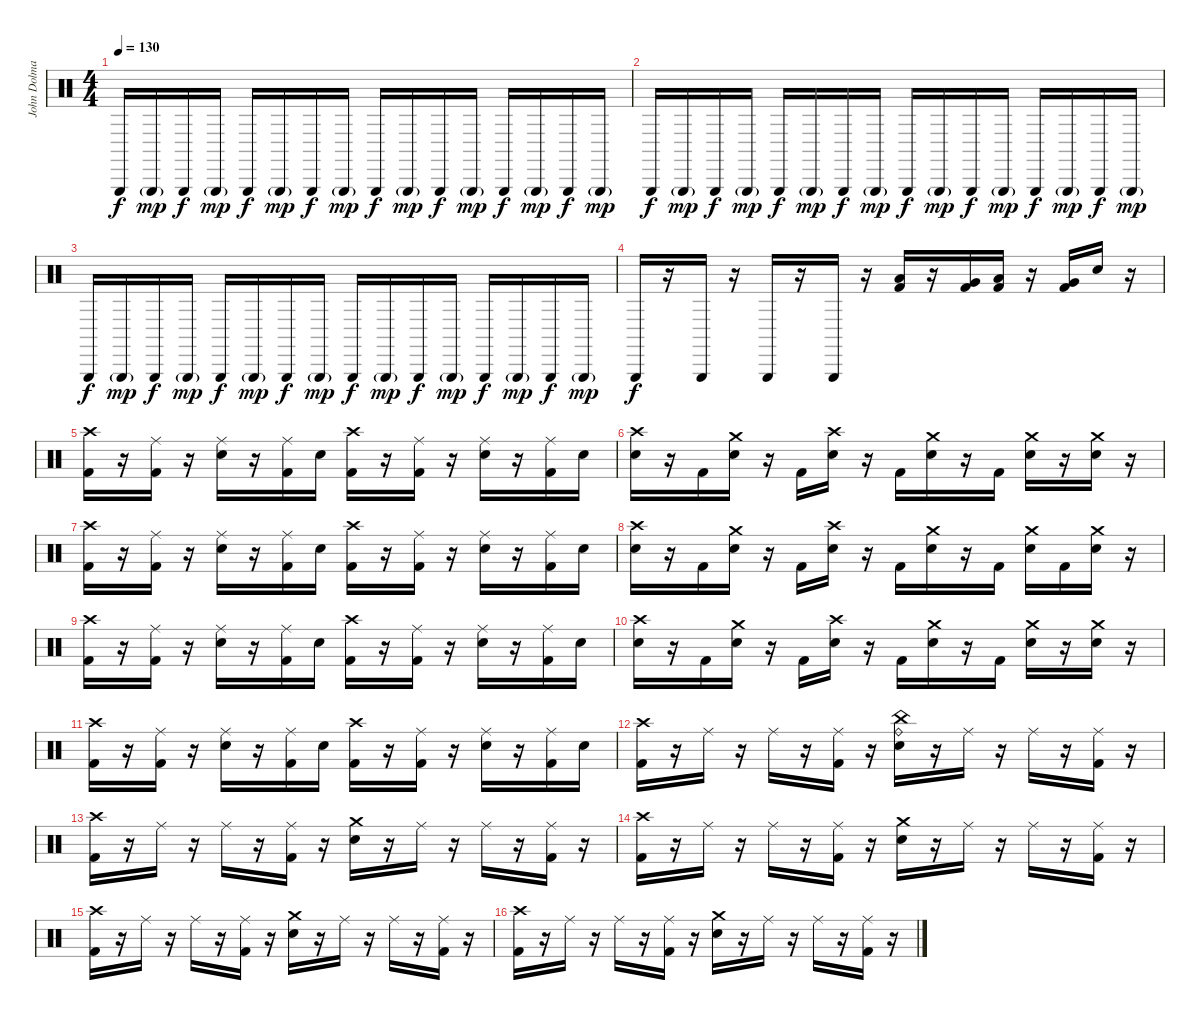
\track ("John Dolmayan" "John Dolma") {instrument percussion}
\staff {score}
\articulation defaults
\ts (4 4)
\tempo 130
\clef neutral
\ks c "Triangle (hit)".16{dy f} "Triangle (hit)"{g}.16{dy mp} "Triangle (hit)".16{dy f} "Triangle (hit)"{g}.16{dy mp} "Triangle (hit)".16{dy f} "Triangle (hit)"{g}.16{dy mp} "Triangle (hit)".16{dy f} "Triangle (hit)"{g}.16{dy mp} "Triangle (hit)".16{dy f} "Triangle (hit)"{g}.16{dy mp} "Triangle (hit)".16{dy f} "Triangle (hit)"{g}.16{dy mp} "Triangle (hit)".16{dy f} "Triangle (hit)"{g}.16{dy mp} "Triangle (hit)".16{dy f} "Triangle (hit)"{g}.16{dy mp}
|
"Triangle (hit)".16{dy f} "Triangle (hit)"{g}.16{dy mp} "Triangle (hit)".16{dy f} "Triangle (hit)"{g}.16{dy mp} "Triangle (hit)".16{dy f} "Triangle (hit)"{g}.16{dy mp} "Triangle (hit)".16{dy f} "Triangle (hit)"{g}.16{dy mp} "Triangle (hit)".16{dy f} "Triangle (hit)"{g}.16{dy mp} "Triangle (hit)".16{dy f} "Triangle (hit)"{g}.16{dy mp} "Triangle (hit)".16{dy f} "Triangle (hit)"{g}.16{dy mp} "Triangle (hit)".16{dy f} "Triangle (hit)"{g}.16{dy mp} |
"Triangle (hit)".16{dy f} "Triangle (hit)"{g}.16{dy mp} "Triangle (hit)".16{dy f} "Triangle (hit)"{g}.16{dy mp} "Triangle (hit)".16{dy f} "Triangle (hit)"{g}.16{dy mp} "Triangle (hit)".16{dy f} "Triangle (hit)"{g}.16{dy mp} "Triangle (hit)".16{dy f} "Triangle (hit)"{g}.16{dy mp} "Triangle (hit)".16{dy f} "Triangle (hit)"{g}.16{dy mp} "Triangle (hit)".16{dy f} "Triangle (hit)"{g}.16{dy mp} "Triangle (hit)".16{dy f} "Triangle (hit)"{g}.16{dy mp} |
"Triangle (hit)".16{dy f} r.16 "Triangle (hit)".16 r.16 "Triangle (hit)".16 r.16 "Triangle (hit)".16 r.16 ("Low Tom (hit)" "Kick (hit) 2").16 r.16 ("Very Low Tom (hit)" "Kick (hit) 2").16 ("Low Floor Tom (hit)" "Kick (hit) 2").16 r.16 ("Very Low Tom (hit)" "Kick (hit) 2").16 "Electric Snare (hit)".16 r.16 |
("Crash high (hit)" "Kick (hit) 2").16 r.16 ("Ride (middle)" "Kick (hit) 2").16 r.16 ("Ride (middle)" "Electric Snare (hit)").16 r.16 ("Ride (middle)" "Kick (hit) 2").16 "Electric Snare (hit)".16 ("Crash high (hit)" "Kick (hit) 2").16 r.16 ("Ride (middle)" "Kick (hit) 2").16 r.16 ("Ride (middle)" "Electric Snare (hit)").16 r.16 ("Ride (middle)" "Kick (hit) 2").16 "Electric Snare (hit)".16 |
("Crash high (hit)" "Electric Snare (hit)").16 r.16 "Kick (hit) 2".16 ("Crash medium (hit)" "Electric Snare (hit)").16 r.16 "Kick (hit) 2".16 ("Crash high (hit)" "Electric Snare (hit)").16 r.16 "Kick (hit) 2".16 ("Crash medium (hit)" "Electric Snare (hit)").16 r.16 "Kick (hit) 2".16 ("Crash medium (hit)" "Electric Snare (hit)").16 r.16 ("Crash medium (hit)" "Electric Snare (hit)").16 r.16 |
("Crash high (hit)" "Kick (hit) 2").16 r.16 ("Ride (middle)" "Kick (hit) 2").16 r.16 ("Ride (middle)" "Electric Snare (hit)").16 r.16 ("Ride (middle)" "Kick (hit) 2").16 "Electric Snare (hit)".16 ("Crash high (hit)" "Kick (hit) 2").16 r.16 ("Ride (middle)" "Kick (hit) 2").16 r.16 ("Ride (middle)" "Electric Snare (hit)").16 r.16 ("Ride (middle)" "Kick (hit) 2").16 "Electric Snare (hit)".16 |
("Crash high (hit)" "Electric Snare (hit)").16 r.16 "Kick (hit) 2".16 ("Crash medium (hit)" "Electric Snare (hit)").16 r.16 "Kick (hit) 2".16 ("Crash high (hit)" "Electric Snare (hit)").16 r.16 "Kick (hit) 2".16 ("Crash medium (hit)" "Electric Snare (hit)").16 r.16 "Kick (hit) 2".16 ("Crash medium (hit)" "Electric Snare (hit)").16 "Kick (hit) 2".16 ("Crash medium (hit)" "Electric Snare (hit)").16 r.16 |
("Crash high (hit)" "Kick (hit) 2").16 r.16 ("Ride (middle)" "Kick (hit) 2").16 r.16 ("Ride (middle)" "Electric Snare (hit)").16 r.16 ("Ride (middle)" "Kick (hit) 2").16 "Electric Snare (hit)".16 ("Crash high (hit)" "Kick (hit) 2").16 r.16 ("Ride (middle)" "Kick (hit) 2").16 r.16 ("Ride (middle)" "Electric Snare (hit)").16 r.16 ("Ride (middle)" "Kick (hit) 2").16 "Electric Snare (hit)".16 |
("Crash high (hit)" "Electric Snare (hit)").16 r.16 "Kick (hit) 2".16 ("Crash medium (hit)" "Electric Snare (hit)").16 r.16 "Kick (hit) 2".16 ("Crash high (hit)" "Electric Snare (hit)").16 r.16 "Kick (hit) 2".16 ("Crash medium (hit)" "Electric Snare (hit)").16 r.16 "Kick (hit) 2".16 ("Crash medium (hit)" "Electric Snare (hit)").16 r.16 ("Crash medium (hit)" "Electric Snare (hit)").16 r.16 |
("Crash high (hit)" "Kick (hit) 2").16 r.16 ("Ride (middle)" "Kick (hit) 2").16 r.16 ("Ride (middle)" "Electric Snare (hit)").16 r.16 ("Ride (middle)" "Kick (hit) 2").16 "Electric Snare (hit)".16 ("Crash high (hit)" "Kick (hit) 2").16 r.16 ("Ride (middle)" "Kick (hit) 2").16 r.16 ("Ride (middle)" "Electric Snare (hit)").16 r.16 ("Ride (middle)" "Kick (hit) 2").16 "Electric Snare (hit)".16 |
("Crash high (hit)" "Kick (hit) 2").16 r.16 "Ride (middle)".16 r.16 "Ride (middle)".16 r.16 ("Ride (middle)" "Kick (hit) 2").16 r.16 ("China (hit)" "Ride (bell)" "Electric Snare (hit)").16 r.16 "Ride (middle)".16 r.16 "Ride (middle)".16 r.16 ("Ride (middle)" "Kick (hit) 2").16 r.16 |
("Crash high (hit)" "Kick (hit) 2").16 r.16 "Ride (middle)".16 r.16 "Ride (middle)".16 r.16 ("Ride (middle)" "Kick (hit) 2").16 r.16 ("Crash medium (hit)" "Electric Snare (hit)").16 r.16 "Ride (middle)".16 r.16 "Ride (middle)".16 r.16 ("Ride (middle)" "Kick (hit) 2").16 r.16 |
("Crash high (hit)" "Kick (hit) 2").16 r.16 "Ride (middle)".16 r.16 "Ride (middle)".16 r.16 ("Ride (middle)" "Kick (hit) 2").16 r.16 ("Crash medium (hit)" "Electric Snare (hit)").16 r.16 "Ride (middle)".16 r.16 "Ride (middle)".16 r.16 ("Ride (middle)" "Kick (hit) 2").16 r.16 |
("Crash high (hit)" "Kick (hit) 2").16 r.16 "Ride (middle)".16 r.16 "Ride (middle)".16 r.16 ("Ride (middle)" "Kick (hit) 2").16 r.16 ("Crash medium (hit)" "Electric Snare (hit)").16 r.16 "Ride (middle)".16 r.16 "Ride (middle)".16 r.16 ("Ride (middle)" "Kick (hit) 2").16 r.16 |
("Crash high (hit)" "Kick (hit) 2").16 r.16 "Ride (middle)".16 r.16 "Ride (middle)".16 r.16 ("Ride (middle)" "Kick (hit) 2").16 r.16 ("Crash medium (hit)" "Electric Snare (hit)").16 r.16 "Ride (middle)".16 r.16 "Ride (middle)".16 r.16 ("Ride (middle)" "Kick (hit) 2").16 r.16
